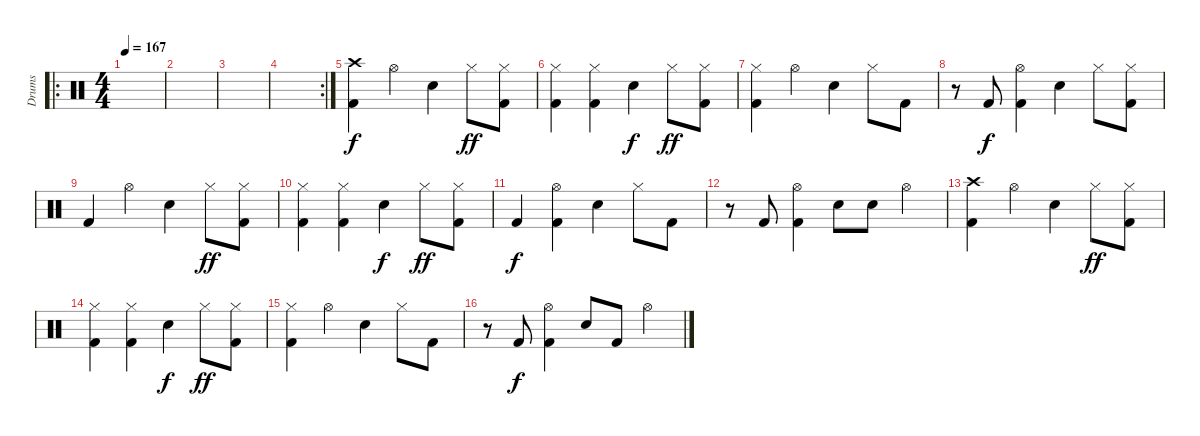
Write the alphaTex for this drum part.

\track ("Drums" "Drums") {instrument percussion}
\staff {score}
\articulation defaults
\ro
\ts (4 4)
\tempo 167
\clef neutral
\ks c
|
|
|
\rc 2
|
("Crash high (hit)" "Kick (hit) 2").4 "Hi-Hat (open)".4 "Electric Snare (hit)".4 "Hi-Hat (closed)".8{dy ff} ("Hi-Hat (closed)" "Kick (hit) 2").8 |
("Hi-Hat (closed)" "Kick (hit) 2").4 ("Hi-Hat (closed)" "Kick (hit) 2").4 "Electric Snare (hit)".4{dy f} "Hi-Hat (closed)".8{dy ff} ("Hi-Hat (closed)" "Kick (hit) 2").8 |
("Hi-Hat (closed)" "Kick (hit) 2").4 "Hi-Hat (open)".4 "Electric Snare (hit)".4 "Hi-Hat (closed)".8 "Kick (hit) 2".8 |
r.8 "Kick (hit) 2".8{dy f} ("Hi-Hat (open)" "Kick (hit) 2").4 "Electric Snare (hit)".4 "Hi-Hat (closed)".8 ("Hi-Hat (closed)" "Kick (hit) 2").8 |
"Kick (hit) 2".4 "Hi-Hat (open)".4 "Electric Snare (hit)".4 "Hi-Hat (closed)".8{dy ff} ("Hi-Hat (closed)" "Kick (hit) 2").8 |
("Hi-Hat (closed)" "Kick (hit) 2").4 ("Hi-Hat (closed)" "Kick (hit) 2").4 "Electric Snare (hit)".4{dy f} "Hi-Hat (closed)".8{dy ff} ("Hi-Hat (closed)" "Kick (hit) 2").8 |
"Kick (hit) 2".4{dy f} ("Hi-Hat (open)" "Kick (hit) 2").4 "Electric Snare (hit)".4 "Hi-Hat (closed)".8 "Kick (hit) 2".8 |
r.8 "Kick (hit) 2".8 ("Hi-Hat (open)" "Kick (hit) 2").4 "Electric Snare (hit)".8 "Electric Snare (hit)".8 "Hi-Hat (open)".4 |
("Crash high (hit)" "Kick (hit) 2").4 "Hi-Hat (open)".4 "Electric Snare (hit)".4 "Hi-Hat (closed)".8{dy ff} ("Hi-Hat (closed)" "Kick (hit) 2").8 |
("Hi-Hat (closed)" "Kick (hit) 2").4 ("Hi-Hat (closed)" "Kick (hit) 2").4 "Electric Snare (hit)".4{dy f} "Hi-Hat (closed)".8{dy ff} ("Hi-Hat (closed)" "Kick (hit) 2").8 |
("Hi-Hat (closed)" "Kick (hit) 2").4 "Hi-Hat (open)".4 "Electric Snare (hit)".4 "Hi-Hat (closed)".8 "Kick (hit) 2".8 |
r.8 "Kick (hit) 2".8{dy f} ("Hi-Hat (open)" "Kick (hit) 2").4 "Electric Snare (hit)".8 "Kick (hit) 2".8 "Hi-Hat (open)".4
